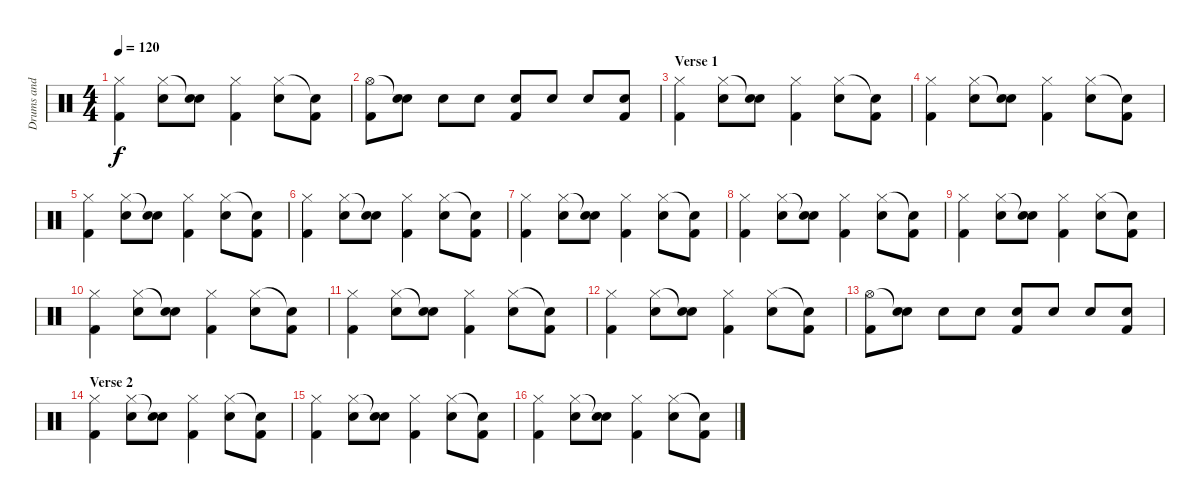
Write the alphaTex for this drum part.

\track ("Drums and Percussion" "Drums and ") {instrument percussion}
\staff {score}
\articulation defaults
\ts (4 4)
\tempo 120
\clef neutral
\ks c
("Hi-Hat (closed)" "Kick (hit) 2").4{dy f} ("Hi-Hat (closed)" "Snare (hit) 2").8 ("Snare (hit)"{t} "Snare (hit) 2").8 ("Hi-Hat (closed)" "Kick (hit) 2").4 ("Hi-Hat (closed)" "Snare (hit) 2").8 ("Snare (hit)"{t} "Kick (hit) 2").8 |
("Hi-Hat (open)" "Kick (hit) 2").8 ("Snare (hit)"{t} "Snare (hit) 2").8 "Snare (hit) 2".8 "Snare (hit) 2".8 ("Snare (hit) 2" "Kick (hit) 2").8 "Snare (hit) 2".8 "Snare (hit) 2".8 ("Snare (hit) 2" "Kick (hit) 2").8 |
\section ("" "Verse 1")
("Hi-Hat (closed)" "Kick (hit) 2").4 ("Hi-Hat (closed)" "Snare (hit) 2").8 ("Snare (hit)"{t} "Snare (hit) 2").8 ("Hi-Hat (closed)" "Kick (hit) 2").4 ("Hi-Hat (closed)" "Snare (hit) 2").8 ("Snare (hit)"{t} "Kick (hit) 2").8 |
("Hi-Hat (closed)" "Kick (hit) 2").4 ("Hi-Hat (closed)" "Snare (hit) 2").8 ("Snare (hit)"{t} "Snare (hit) 2").8 ("Hi-Hat (closed)" "Kick (hit) 2").4 ("Hi-Hat (closed)" "Snare (hit) 2").8 ("Snare (hit)"{t} "Kick (hit) 2").8 |
("Hi-Hat (closed)" "Kick (hit) 2").4 ("Hi-Hat (closed)" "Snare (hit) 2").8 ("Snare (hit)"{t} "Snare (hit) 2").8 ("Hi-Hat (closed)" "Kick (hit) 2").4 ("Hi-Hat (closed)" "Snare (hit) 2").8 ("Snare (hit)"{t} "Kick (hit) 2").8 |
("Hi-Hat (closed)" "Kick (hit) 2").4 ("Hi-Hat (closed)" "Snare (hit) 2").8 ("Snare (hit)"{t} "Snare (hit) 2").8 ("Hi-Hat (closed)" "Kick (hit) 2").4 ("Hi-Hat (closed)" "Snare (hit) 2").8 ("Snare (hit)"{t} "Kick (hit) 2").8 |
("Hi-Hat (closed)" "Kick (hit) 2").4 ("Hi-Hat (closed)" "Snare (hit) 2").8 ("Snare (hit)"{t} "Snare (hit) 2").8 ("Hi-Hat (closed)" "Kick (hit) 2").4 ("Hi-Hat (closed)" "Snare (hit) 2").8 ("Snare (hit)"{t} "Kick (hit) 2").8 |
("Hi-Hat (closed)" "Kick (hit) 2").4 ("Hi-Hat (closed)" "Snare (hit) 2").8 ("Snare (hit)"{t} "Snare (hit) 2").8 ("Hi-Hat (closed)" "Kick (hit) 2").4 ("Hi-Hat (closed)" "Snare (hit) 2").8 ("Snare (hit)"{t} "Kick (hit) 2").8 |
("Hi-Hat (closed)" "Kick (hit) 2").4 ("Hi-Hat (closed)" "Snare (hit) 2").8 ("Snare (hit)"{t} "Snare (hit) 2").8 ("Hi-Hat (closed)" "Kick (hit) 2").4 ("Hi-Hat (closed)" "Snare (hit) 2").8 ("Snare (hit)"{t} "Kick (hit) 2").8 |
("Hi-Hat (closed)" "Kick (hit) 2").4 ("Hi-Hat (closed)" "Snare (hit) 2").8 ("Snare (hit)"{t} "Snare (hit) 2").8 ("Hi-Hat (closed)" "Kick (hit) 2").4 ("Hi-Hat (closed)" "Snare (hit) 2").8 ("Snare (hit)"{t} "Kick (hit) 2").8 |
("Hi-Hat (closed)" "Kick (hit) 2").4 ("Hi-Hat (closed)" "Snare (hit) 2").8 ("Snare (hit)"{t} "Snare (hit) 2").8 ("Hi-Hat (closed)" "Kick (hit) 2").4 ("Hi-Hat (closed)" "Snare (hit) 2").8 ("Snare (hit)"{t} "Kick (hit) 2").8 |
("Hi-Hat (closed)" "Kick (hit) 2").4 ("Hi-Hat (closed)" "Snare (hit) 2").8 ("Snare (hit)"{t} "Snare (hit) 2").8 ("Hi-Hat (closed)" "Kick (hit) 2").4 ("Hi-Hat (closed)" "Snare (hit) 2").8 ("Snare (hit)"{t} "Kick (hit) 2").8 |
("Hi-Hat (open)" "Kick (hit) 2").8 ("Snare (hit)"{t} "Snare (hit) 2").8 "Snare (hit) 2".8 "Snare (hit) 2".8 ("Snare (hit) 2" "Kick (hit) 2").8 "Snare (hit) 2".8 "Snare (hit) 2".8 ("Snare (hit) 2" "Kick (hit) 2").8 |
\section ("" "Verse 2")
("Hi-Hat (closed)" "Kick (hit) 2").4 ("Hi-Hat (closed)" "Snare (hit) 2").8 ("Snare (hit)"{t} "Snare (hit) 2").8 ("Hi-Hat (closed)" "Kick (hit) 2").4 ("Hi-Hat (closed)" "Snare (hit) 2").8 ("Snare (hit)"{t} "Kick (hit) 2").8 |
("Hi-Hat (closed)" "Kick (hit) 2").4 ("Hi-Hat (closed)" "Snare (hit) 2").8 ("Snare (hit)"{t} "Snare (hit) 2").8 ("Hi-Hat (closed)" "Kick (hit) 2").4 ("Hi-Hat (closed)" "Snare (hit) 2").8 ("Snare (hit)"{t} "Kick (hit) 2").8 |
("Hi-Hat (closed)" "Kick (hit) 2").4 ("Hi-Hat (closed)" "Snare (hit) 2").8 ("Snare (hit)"{t} "Snare (hit) 2").8 ("Hi-Hat (closed)" "Kick (hit) 2").4 ("Hi-Hat (closed)" "Snare (hit) 2").8 ("Snare (hit)"{t} "Kick (hit) 2").8
